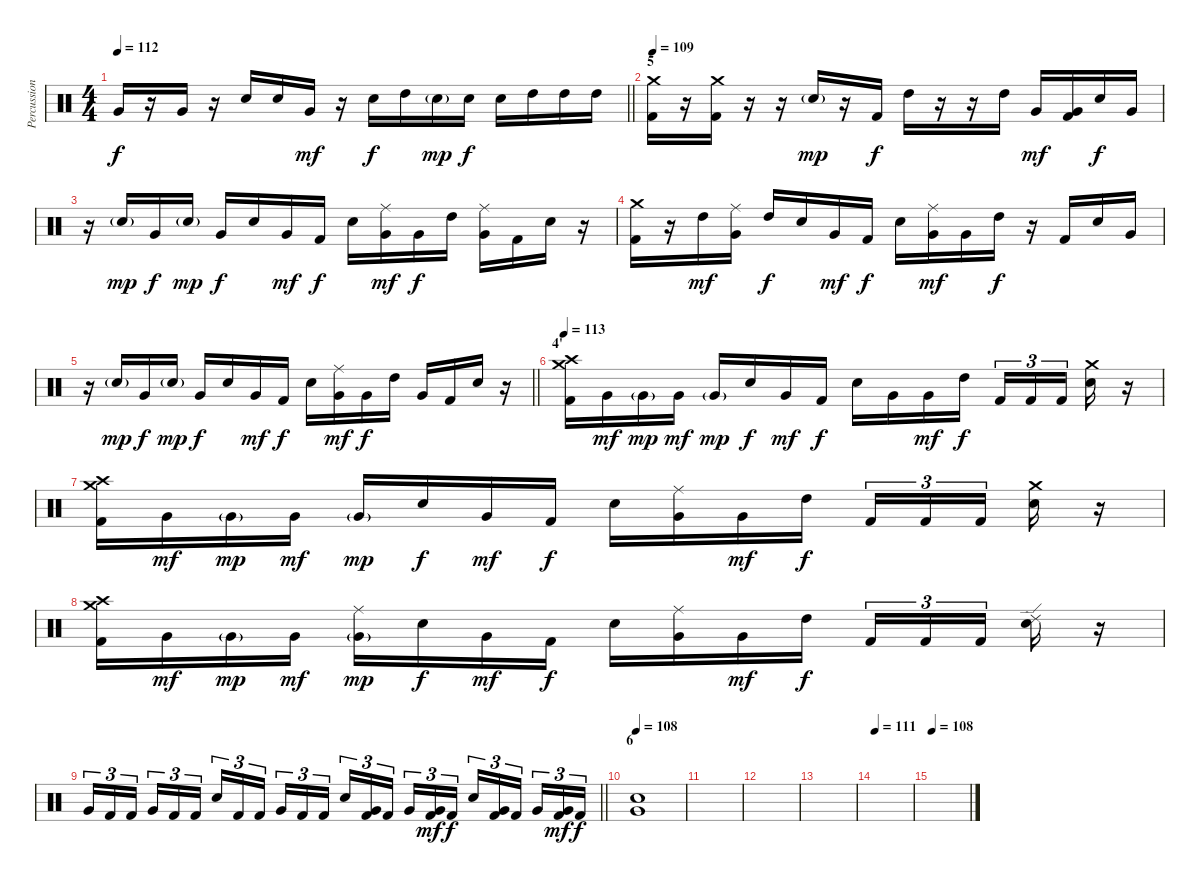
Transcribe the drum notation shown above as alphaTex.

\track ("Percussion" "Percussion") {instrument percussion}
\staff {score}
\articulation defaults
\ts (4 4)
\tempo 112
\clef neutral
\barLineRight lightlight
\ks c "Very Low Tom (hit)".16{dy f}
r.16 "Very Low Tom (hit)".16 r.16 "Snare (hit) 2".16 "Snare (hit) 2".16 "Very Low Tom (hit)".16{dy mf} r.16 "Snare (hit) 2".16{dy f} "High Tom (hit)".16 "Snare (hit) 2"{g}.16{dy mp} "Snare (hit) 2".16{dy f} "Snare (hit) 2".16 "High Tom (hit)".16 "High Tom (hit)".16 "High Tom (hit)".16 |
\section ("" "5")
\tempo 109
("Crash medium (hit)" "Kick (hit) 2").16 r.16 ("Crash medium (hit)" "Kick (hit) 2").16 r.16 r.16 "Snare (hit) 2"{g}.16{dy mp} r.16 "Kick (hit) 2".16{dy f} "High Tom (hit)".16 r.16 r.16 "High Tom (hit)".16 "Very Low Tom (hit)".16{dy mf} ("Very Low Tom (hit)" "Kick (hit) 2").16 "Snare (hit) 2".16{dy f} "Very Low Tom (hit)".16 |
r.16 "Snare (hit) 2"{g}.16{dy mp} "Very Low Tom (hit)".16{dy f} "Snare (hit) 2"{g}.16{dy mp} "Very Low Tom (hit)".16{dy f} "Snare (hit) 2".16 "Very Low Tom (hit)".16{dy mf} "Kick (hit) 2".16{dy f} "Snare (hit) 2".16 ("Ride (middle)" "Very Low Tom (hit)").16{dy mf} "Very Low Tom (hit)".16{dy f} "High Tom (hit)".16 ("Ride (middle)" "Very Low Tom (hit)").16 "Kick (hit) 2".16 "Snare (hit) 2".16 r.16 |
("Crash medium (hit)" "Kick (hit) 2").16 r.16 "High Tom (hit)".16{dy mf} ("Ride (middle)" "Very Low Tom (hit)").16 "High Tom (hit)".16{dy f} "Snare (hit) 2".16 "Very Low Tom (hit)".16{dy mf} "Kick (hit) 2".16{dy f} "Snare (hit) 2".16 ("Ride (middle)" "Very Low Tom (hit)").16{dy mf} "Very Low Tom (hit)".16 "High Tom (hit)".16{dy f} r.16 "Kick (hit) 2".16 "Snare (hit) 2".16 "Very Low Tom (hit)".16 |
\barLineRight lightlight
r.16 "Snare (hit) 2"{g}.16{dy mp} "Very Low Tom (hit)".16{dy f} "Snare (hit) 2"{g}.16{dy mp} "Very Low Tom (hit)".16{dy f} "Snare (hit) 2".16 "Very Low Tom (hit)".16{dy mf} "Kick (hit) 2".16{dy f} "Snare (hit) 2".16 ("Ride (middle)" "Very Low Tom (hit)").16{dy mf} "Very Low Tom (hit)".16{dy f} "High Tom (hit)".16 "Very Low Tom (hit)".16 "Kick (hit) 2".16 "Snare (hit) 2".16 r.16 |
\section ("" "4'")
\tempo 113
("Crash high (hit)" "Crash medium (hit)" "Kick (hit) 2").16 "Very Low Tom (hit)".16{dy mf} "Very Low Tom (hit)"{g}.16{dy mp} "Very Low Tom (hit)".16{dy mf} "Very Low Tom (hit)"{g}.16{dy mp} "Snare (hit) 2".16{dy f} "Very Low Tom (hit)".16{dy mf} "Kick (hit) 2".16{dy f} "Snare (hit) 2".16 "Very Low Tom (hit)".16 "Very Low Tom (hit)".16{dy mf} "High Tom (hit)".16{dy f} "Kick (hit) 2".16{tu (3 2)} "Kick (hit) 2".16{tu (3 2)} "Kick (hit) 2".16{tu (3 2) beam splitsecondary} ("Crash medium (hit)" "Snare (hit) 2").16 r.16 |
("Crash high (hit)" "Crash medium (hit)" "Kick (hit) 2").16 "Very Low Tom (hit)".16{dy mf} "Very Low Tom (hit)"{g}.16{dy mp} "Very Low Tom (hit)".16{dy mf} "Very Low Tom (hit)"{g}.16{dy mp} "Snare (hit) 2".16{dy f} "Very Low Tom (hit)".16{dy mf} "Kick (hit) 2".16{dy f} "Snare (hit) 2".16 ("Ride (middle)" "Very Low Tom (hit)").16 "Very Low Tom (hit)".16{dy mf} "High Tom (hit)".16{dy f} "Kick (hit) 2".16{tu (3 2)} "Kick (hit) 2".16{tu (3 2)} "Kick (hit) 2".16{tu (3 2) beam splitsecondary} ("Crash medium (hit)" "Snare (hit) 2").16 r.16 |
("Crash high (hit)" "Crash medium (hit)" "Kick (hit) 2").16 "Very Low Tom (hit)".16{dy mf} "Very Low Tom (hit)"{g}.16{dy mp} "Very Low Tom (hit)".16{dy mf} ("Ride (middle)" "Very Low Tom (hit)"{g}).16{dy mp} "Snare (hit) 2".16{dy f} "Very Low Tom (hit)".16{dy mf} "Kick (hit) 2".16{dy f} "Snare (hit) 2".16 ("Ride (middle)" "Very Low Tom (hit)").16 "Very Low Tom (hit)".16{dy mf} "High Tom (hit)".16{dy f} "Kick (hit) 2".16{tu (3 2)} "Kick (hit) 2".16{tu (3 2)} "Kick (hit) 2".16{tu (3 2) beam splitsecondary} ("Ride (edge) 2" "Snare (hit) 2").16 r.16 |
\barLineRight lightlight "Very Low Tom (hit)".16{tu (3 2)} "Kick (hit) 2".16{tu (3 2)} "Kick (hit) 2".16{tu (3 2) beam splitsecondary} "Very Low Tom (hit)".16{tu (3 2)} "Kick (hit) 2".16{tu (3 2)} "Kick (hit) 2".16{tu (3 2)} "Snare (hit) 2".16{tu (3 2)} "Kick (hit) 2".16{tu (3 2)} "Kick (hit) 2".16{tu (3 2) beam splitsecondary} "Very Low Tom (hit)".16{tu (3 2)} "Kick (hit) 2".16{tu (3 2)} "Kick (hit) 2".16{tu (3 2)} "Snare (hit) 2".16{tu (3 2)}
("Very Low Tom (hit)" "Kick (hit) 2").16{tu (3 2)} "Kick (hit) 2".16{tu (3 2) beam splitsecondary} "Very Low Tom (hit)".16{tu (3 2)} ("Very Low Tom (hit)" "Kick (hit) 2").16{tu (3 2) dy mf} "Kick (hit) 2".16{tu (3 2) dy f} "Snare (hit) 2".16{tu (3 2)} ("Very Low Tom (hit)" "Kick (hit) 2").16{tu (3 2)} "Kick (hit) 2".16{tu (3 2) beam splitsecondary} "Very Low Tom (hit)".16{tu (3 2)} ("Very Low Tom (hit)" "Kick (hit) 2").16{tu (3 2) dy mf} "Kick (hit) 2".16{tu (3 2) dy f} |
\section ("" "6")
\tempo 108
("Snare (hit) 2" "Very Low Tom (hit)").1{bu 60} |
|
|
|
\tempo 111
|
\tempo 108
